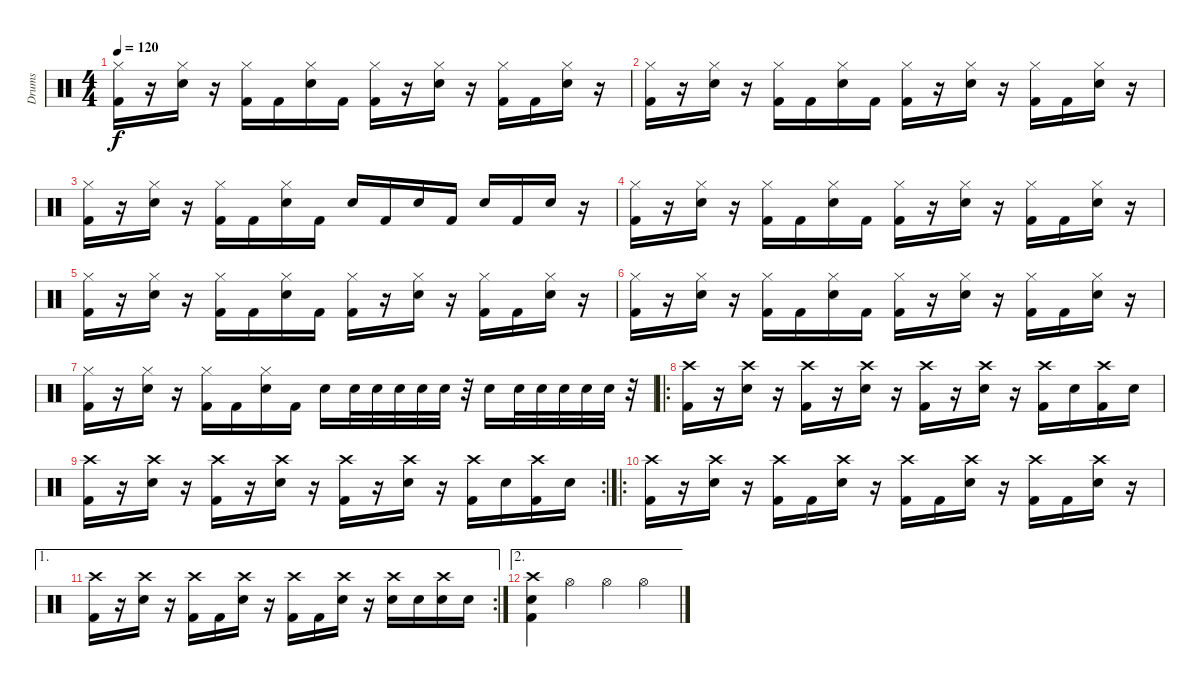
\track ("Drums" "Drums") {instrument percussion}
\staff {score}
\articulation defaults
\ts (4 4)
\tempo 120
\clef neutral
\ks c
("Hi-Hat (closed)" "Kick (hit) 2").16{dy f} r.16 ("Hi-Hat (closed)" "Snare (hit) 2").16 r.16 ("Hi-Hat (closed)" "Kick (hit) 2").16 "Kick (hit) 2".16 ("Hi-Hat (closed)" "Snare (hit) 2").16 "Kick (hit) 2".16 ("Kick (hit) 2" "Hi-Hat (closed)").16 r.16 ("Snare (hit) 2" "Hi-Hat (closed)").16 r.16 ("Kick (hit) 2" "Hi-Hat (closed)").16 "Kick (hit) 2".16 ("Snare (hit) 2" "Hi-Hat (closed)").16 r.16 |
("Hi-Hat (closed)" "Kick (hit) 2").16 r.16 ("Hi-Hat (closed)" "Snare (hit) 2").16 r.16 ("Hi-Hat (closed)" "Kick (hit) 2").16 "Kick (hit) 2".16 ("Hi-Hat (closed)" "Snare (hit) 2").16 "Kick (hit) 2".16 ("Kick (hit) 2" "Hi-Hat (closed)").16 r.16 ("Snare (hit) 2" "Hi-Hat (closed)").16 r.16 ("Kick (hit) 2" "Hi-Hat (closed)").16 "Kick (hit) 2".16 ("Snare (hit) 2" "Hi-Hat (closed)").16 r.16 |
("Hi-Hat (closed)" "Kick (hit) 2").16 r.16 ("Hi-Hat (closed)" "Snare (hit) 2").16 r.16 ("Hi-Hat (closed)" "Kick (hit) 2").16 "Kick (hit) 2".16 ("Hi-Hat (closed)" "Snare (hit) 2").16 "Kick (hit) 2".16 "Snare (hit) 2".16 "Kick (hit) 2".16 "Snare (hit) 2".16 "Kick (hit) 2".16 "Snare (hit) 2".16 "Kick (hit) 2".16 "Snare (hit) 2".16 r.16 |
("Hi-Hat (closed)" "Kick (hit) 2").16 r.16 ("Hi-Hat (closed)" "Snare (hit) 2").16 r.16 ("Hi-Hat (closed)" "Kick (hit) 2").16 "Kick (hit) 2".16 ("Hi-Hat (closed)" "Snare (hit) 2").16 "Kick (hit) 2".16 ("Kick (hit) 2" "Hi-Hat (closed)").16 r.16 ("Snare (hit) 2" "Hi-Hat (closed)").16 r.16 ("Kick (hit) 2" "Hi-Hat (closed)").16 "Kick (hit) 2".16 ("Snare (hit) 2" "Hi-Hat (closed)").16 r.16 |
("Hi-Hat (closed)" "Kick (hit) 2").16 r.16 ("Hi-Hat (closed)" "Snare (hit) 2").16 r.16 ("Hi-Hat (closed)" "Kick (hit) 2").16 "Kick (hit) 2".16 ("Hi-Hat (closed)" "Snare (hit) 2").16 "Kick (hit) 2".16 ("Kick (hit) 2" "Hi-Hat (closed)").16 r.16 ("Snare (hit) 2" "Hi-Hat (closed)").16 r.16 ("Kick (hit) 2" "Hi-Hat (closed)").16 "Kick (hit) 2".16 ("Snare (hit) 2" "Hi-Hat (closed)").16 r.16 |
("Hi-Hat (closed)" "Kick (hit) 2").16 r.16 ("Hi-Hat (closed)" "Snare (hit) 2").16 r.16 ("Hi-Hat (closed)" "Kick (hit) 2").16 "Kick (hit) 2".16 ("Hi-Hat (closed)" "Snare (hit) 2").16 "Kick (hit) 2".16 ("Kick (hit) 2" "Hi-Hat (closed)").16 r.16 ("Snare (hit) 2" "Hi-Hat (closed)").16 r.16 ("Kick (hit) 2" "Hi-Hat (closed)").16 "Kick (hit) 2".16 ("Snare (hit) 2" "Hi-Hat (closed)").16 r.16 |
("Hi-Hat (closed)" "Kick (hit) 2").16 r.16 ("Hi-Hat (closed)" "Snare (hit) 2").16 r.16 ("Hi-Hat (closed)" "Kick (hit) 2").16 "Kick (hit) 2".16 ("Hi-Hat (closed)" "Snare (hit) 2").16 "Kick (hit) 2".16 "Snare (hit) 2".16 "Snare (hit) 2".32 "Snare (hit) 2".32 "Snare (hit) 2".32 "Snare (hit) 2".32 "Snare (hit) 2".32 r.32 "Snare (hit) 2".16 "Snare (hit) 2".32 "Snare (hit) 2".32 "Snare (hit) 2".32 "Snare (hit) 2".32 "Snare (hit) 2".32 r.32 |
\ro
("Crash high (hit)" "Kick (hit) 2").16 r.16 ("Crash high (hit)" "Snare (hit) 2").16 r.16 ("Crash high (hit)" "Kick (hit) 2").16 r.16 ("Crash high (hit)" "Snare (hit) 2").16 r.16 ("Crash high (hit)" "Kick (hit) 2").16 r.16 ("Crash high (hit)" "Snare (hit) 2").16 r.16 ("Crash high (hit)" "Kick (hit) 2").16 "Snare (hit) 2".16 ("Crash high (hit)" "Kick (hit) 2").16 "Snare (hit) 2".16 |
\rc 2
("Crash high (hit)" "Kick (hit) 2").16 r.16 ("Crash high (hit)" "Snare (hit) 2").16 r.16 ("Crash high (hit)" "Kick (hit) 2").16 r.16 ("Crash high (hit)" "Snare (hit) 2").16 r.16 ("Crash high (hit)" "Kick (hit) 2").16 r.16 ("Crash high (hit)" "Snare (hit) 2").16 r.16 ("Crash high (hit)" "Kick (hit) 2").16 "Snare (hit) 2".16 ("Crash high (hit)" "Kick (hit) 2").16 "Snare (hit) 2".16 |
\ro
("Crash high (hit)" "Kick (hit) 2").16 r.16 ("Crash high (hit)" "Snare (hit) 2").16 r.16 ("Crash high (hit)" "Kick (hit) 2").16 "Kick (hit) 2".16 ("Crash high (hit)" "Snare (hit) 2").16 r.16 ("Crash high (hit)" "Kick (hit) 2").16 "Kick (hit) 2".16 ("Crash high (hit)" "Snare (hit) 2").16 r.16 ("Crash high (hit)" "Kick (hit) 2").16 "Kick (hit) 2".16 ("Crash high (hit)" "Snare (hit) 2").16 r.16 |
\ae 1
\rc 2
("Crash high (hit)" "Kick (hit) 2").16 r.16 ("Crash high (hit)" "Snare (hit) 2").16 r.16 ("Crash high (hit)" "Kick (hit) 2").16 "Kick (hit) 2".16 ("Crash high (hit)" "Snare (hit) 2").16 r.16 ("Crash high (hit)" "Kick (hit) 2").16 "Kick (hit) 2".16 ("Crash high (hit)" "Snare (hit) 2").16 r.16 ("Crash high (hit)" "Snare (hit) 2").16 "Snare (hit) 2".16 ("Crash high (hit)" "Snare (hit) 2").16 "Snare (hit) 2".16 |
\ae 2
("Snare (hit) 2" "Kick (hit) 2" "Crash high (hit)").4 "Hi-Hat (open)".4 "Hi-Hat (open)".4 "Hi-Hat (open)".4
